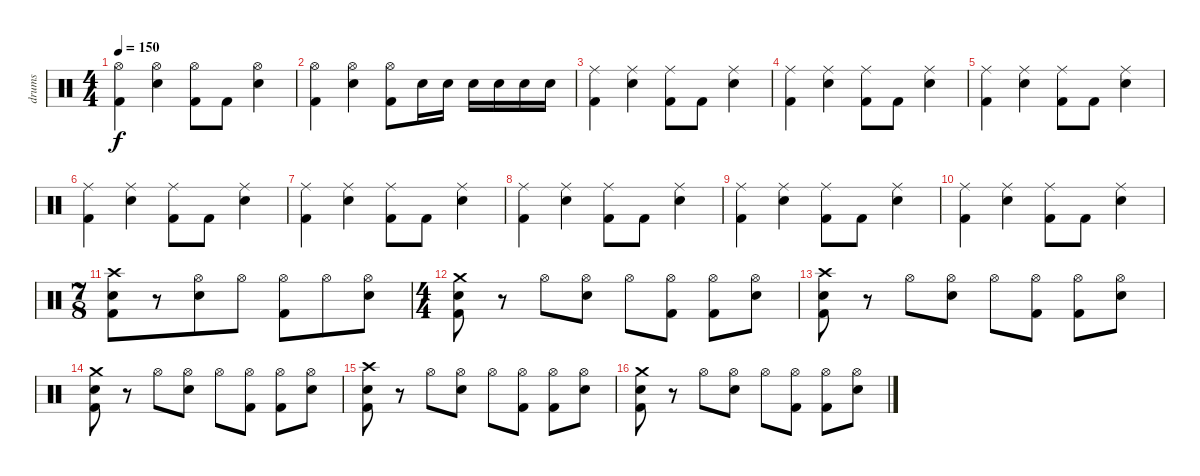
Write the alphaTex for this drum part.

\track ("drums" "drums") {instrument percussion}
\staff {score}
\articulation defaults
\ts (4 4)
\tempo 150
\clef neutral
\ks c
("Hi-Hat (open)" "Kick (hit) 2").4{dy f} ("Hi-Hat (open)" "Snare (hit) 2").4 ("Hi-Hat (open)" "Kick (hit) 2").8 "Kick (hit) 2".8 ("Hi-Hat (open)" "Snare (hit) 2").4 |
("Hi-Hat (open)" "Kick (hit) 2").4 ("Hi-Hat (open)" "Snare (hit) 2").4 ("Hi-Hat (open)" "Kick (hit) 2").8 "Snare (hit) 2".16 "Snare (hit) 2".16 "Snare (hit) 2".16 "Snare (hit) 2".16 "Snare (hit) 2".16 "Snare (hit) 2".16 |
("Ride (middle)" "Kick (hit) 2").4 ("Ride (middle)" "Snare (hit) 2").4 ("Ride (middle)" "Kick (hit) 2").8 "Kick (hit) 2".8 ("Ride (middle)" "Snare (hit) 2").4 |
("Ride (middle)" "Kick (hit) 2").4 ("Ride (middle)" "Snare (hit) 2").4 ("Ride (middle)" "Kick (hit) 2").8 "Kick (hit) 2".8 ("Ride (middle)" "Snare (hit) 2").4 |
("Ride (middle)" "Kick (hit) 2").4 ("Ride (middle)" "Snare (hit) 2").4 ("Ride (middle)" "Kick (hit) 2").8 "Kick (hit) 2".8 ("Ride (middle)" "Snare (hit) 2").4 |
("Ride (middle)" "Kick (hit) 2").4 ("Ride (middle)" "Snare (hit) 2").4 ("Ride (middle)" "Kick (hit) 2").8 "Kick (hit) 2".8 ("Ride (middle)" "Snare (hit) 2").4 |
("Ride (middle)" "Kick (hit) 2").4 ("Ride (middle)" "Snare (hit) 2").4 ("Ride (middle)" "Kick (hit) 2").8 "Kick (hit) 2".8 ("Ride (middle)" "Snare (hit) 2").4 |
("Ride (middle)" "Kick (hit) 2").4 ("Ride (middle)" "Snare (hit) 2").4 ("Ride (middle)" "Kick (hit) 2").8 "Kick (hit) 2".8 ("Ride (middle)" "Snare (hit) 2").4 |
("Ride (middle)" "Kick (hit) 2").4 ("Ride (middle)" "Snare (hit) 2").4 ("Ride (middle)" "Kick (hit) 2").8 "Kick (hit) 2".8 ("Ride (middle)" "Snare (hit) 2").4 |
("Ride (middle)" "Kick (hit) 2").4 ("Ride (middle)" "Snare (hit) 2").4 ("Ride (middle)" "Kick (hit) 2").8 "Kick (hit) 2".8 ("Ride (middle)" "Snare (hit) 2").4 |
\ts (7 8)
("Crash high (hit)" "Snare (hit) 2" "Kick (hit) 2").8 r.8 ("Hi-Hat (open)" "Snare (hit) 2").8 "Hi-Hat (open)".8 ("Hi-Hat (open)" "Kick (hit) 2").8 "Hi-Hat (open)".8 ("Hi-Hat (open)" "Snare (hit) 2").8 |
\ts (4 4)
("Crash medium (hit)" "Kick (hit) 2" "Snare (hit) 2").8 r.8 "Hi-Hat (open)".8 ("Hi-Hat (open)" "Snare (hit) 2").8 "Hi-Hat (open)".8 ("Hi-Hat (open)" "Kick (hit) 2").8 ("Hi-Hat (open)" "Kick (hit) 2").8 ("Hi-Hat (open)" "Snare (hit) 2").8 |
("Crash high (hit)" "Kick (hit) 2" "Snare (hit) 2").8 r.8 "Hi-Hat (open)".8 ("Hi-Hat (open)" "Snare (hit) 2").8 "Hi-Hat (open)".8 ("Hi-Hat (open)" "Kick (hit) 2").8 ("Hi-Hat (open)" "Kick (hit) 2").8 ("Hi-Hat (open)" "Snare (hit) 2").8 |
("Crash medium (hit)" "Kick (hit) 2" "Snare (hit) 2").8 r.8 "Hi-Hat (open)".8 ("Hi-Hat (open)" "Snare (hit) 2").8 "Hi-Hat (open)".8 ("Hi-Hat (open)" "Kick (hit) 2").8 ("Hi-Hat (open)" "Kick (hit) 2").8 ("Hi-Hat (open)" "Snare (hit) 2").8 |
("Crash high (hit)" "Kick (hit) 2" "Snare (hit) 2").8 r.8 "Hi-Hat (open)".8 ("Hi-Hat (open)" "Snare (hit) 2").8 "Hi-Hat (open)".8 ("Hi-Hat (open)" "Kick (hit) 2").8 ("Hi-Hat (open)" "Kick (hit) 2").8 ("Hi-Hat (open)" "Snare (hit) 2").8 |
("Crash medium (hit)" "Kick (hit) 2" "Snare (hit) 2").8 r.8 "Hi-Hat (open)".8 ("Hi-Hat (open)" "Snare (hit) 2").8 "Hi-Hat (open)".8 ("Hi-Hat (open)" "Kick (hit) 2").8 ("Hi-Hat (open)" "Kick (hit) 2").8 ("Hi-Hat (open)" "Snare (hit) 2").8
